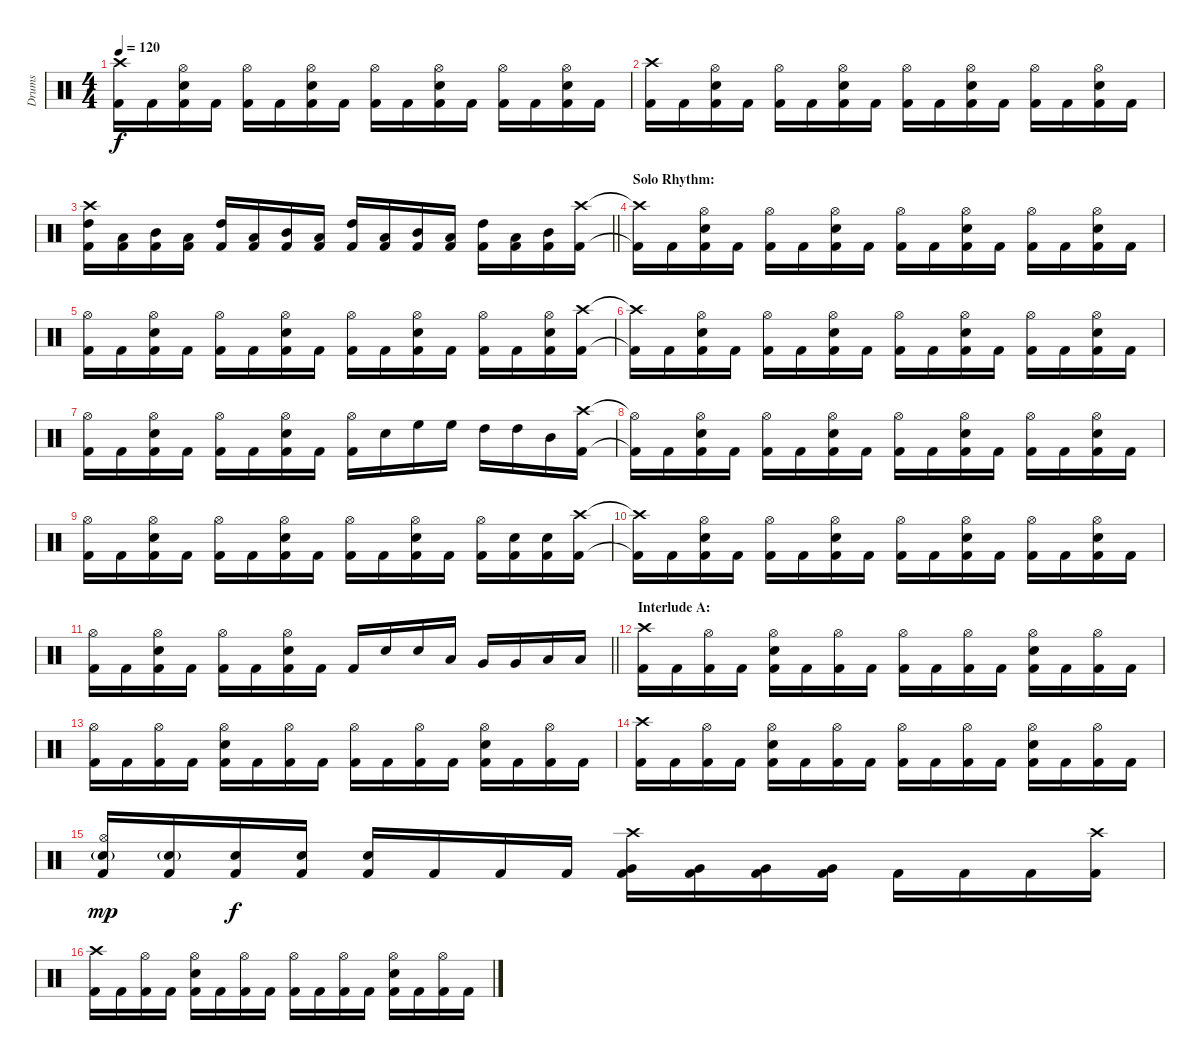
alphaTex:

\track ("Drums" "Drums") {instrument percussion}
\staff {score}
\articulation defaults
\ts (4 4)
\tempo 120
\clef neutral
\ks c
("Crash high (hit)" "Kick (hit) 2").16{dy f} "Kick (hit) 2".16 ("Hi-Hat (open)" "Electric Snare (hit)" "Kick (hit) 2").16 "Kick (hit) 2".16 ("Hi-Hat (open)" "Kick (hit) 2").16 "Kick (hit) 2".16 ("Hi-Hat (open)" "Electric Snare (hit)" "Kick (hit) 2").16 "Kick (hit) 2".16 ("Hi-Hat (open)" "Kick (hit) 2").16 "Kick (hit) 2".16 ("Hi-Hat (open)" "Electric Snare (hit)" "Kick (hit) 2").16 "Kick (hit) 2".16 ("Hi-Hat (open)" "Kick (hit) 2").16 "Kick (hit) 2".16 ("Hi-Hat (open)" "Electric Snare (hit)" "Kick (hit) 2").16 "Kick (hit) 2".16 |
("Crash high (hit)" "Kick (hit) 2").16 "Kick (hit) 2".16 ("Hi-Hat (open)" "Electric Snare (hit)" "Kick (hit) 2").16 "Kick (hit) 2".16 ("Hi-Hat (open)" "Kick (hit) 2").16 "Kick (hit) 2".16 ("Hi-Hat (open)" "Electric Snare (hit)" "Kick (hit) 2").16 "Kick (hit) 2".16 ("Hi-Hat (open)" "Kick (hit) 2").16 "Kick (hit) 2".16 ("Hi-Hat (open)" "Electric Snare (hit)" "Kick (hit) 2").16 "Kick (hit) 2".16 ("Hi-Hat (open)" "Kick (hit) 2").16 "Kick (hit) 2".16 ("Hi-Hat (open)" "Electric Snare (hit)" "Kick (hit) 2").16 "Kick (hit) 2".16 |
\barLineRight lightlight
("Crash high (hit)" "High Tom (hit)" "Kick (hit) 2").16 ("Low Tom (hit)" "Kick (hit) 2").16 ("Mid Tom (hit)" "Kick (hit) 2").16 ("Low Tom (hit)" "Kick (hit) 2").16 ("High Tom (hit)" "Kick (hit) 2").16 ("Low Tom (hit)" "Kick (hit) 2").16 ("Mid Tom (hit)" "Kick (hit) 2").16 ("Low Tom (hit)" "Kick (hit) 2").16 ("High Tom (hit)" "Kick (hit) 2").16 ("Low Tom (hit)" "Kick (hit) 2").16 ("Mid Tom (hit)" "Kick (hit) 2").16 ("Low Tom (hit)" "Kick (hit) 2").16 ("High Tom (hit)" "Kick (hit) 2").16 ("Low Tom (hit)" "Kick (hit) 2").16 ("Mid Tom (hit)" "Kick (hit) 2").16 ("Crash high (hit)" "Kick (hit) 2").16 |
\section ("" "Solo Rhythm:")
("Crash high (hit)"{t} "Kick (hit) 2"{t}).16 "Kick (hit) 2".16 ("Hi-Hat (open)" "Electric Snare (hit)" "Kick (hit) 2").16 "Kick (hit) 2".16 ("Hi-Hat (open)" "Kick (hit) 2").16 "Kick (hit) 2".16 ("Hi-Hat (open)" "Electric Snare (hit)" "Kick (hit) 2").16 "Kick (hit) 2".16 ("Hi-Hat (open)" "Kick (hit) 2").16 "Kick (hit) 2".16 ("Hi-Hat (open)" "Electric Snare (hit)" "Kick (hit) 2").16 "Kick (hit) 2".16 ("Hi-Hat (open)" "Kick (hit) 2").16 "Kick (hit) 2".16 ("Hi-Hat (open)" "Electric Snare (hit)" "Kick (hit) 2").16 "Kick (hit) 2".16 |
("Hi-Hat (open)" "Kick (hit) 2").16 "Kick (hit) 2".16 ("Hi-Hat (open)" "Electric Snare (hit)" "Kick (hit) 2").16 "Kick (hit) 2".16 ("Hi-Hat (open)" "Kick (hit) 2").16 "Kick (hit) 2".16 ("Hi-Hat (open)" "Electric Snare (hit)" "Kick (hit) 2").16 "Kick (hit) 2".16 ("Hi-Hat (open)" "Kick (hit) 2").16 "Kick (hit) 2".16 ("Hi-Hat (open)" "Electric Snare (hit)" "Kick (hit) 2").16 "Kick (hit) 2".16 ("Hi-Hat (open)" "Kick (hit) 2").16 "Kick (hit) 2".16 ("Hi-Hat (open)" "Electric Snare (hit)" "Kick (hit) 2").16 ("Crash high (hit)" "Kick (hit) 2").16 |
("Crash high (hit)"{t} "Kick (hit) 2"{t}).16 "Kick (hit) 2".16 ("Hi-Hat (open)" "Electric Snare (hit)" "Kick (hit) 2").16 "Kick (hit) 2".16 ("Hi-Hat (open)" "Kick (hit) 2").16 "Kick (hit) 2".16 ("Hi-Hat (open)" "Electric Snare (hit)" "Kick (hit) 2").16 "Kick (hit) 2".16 ("Hi-Hat (open)" "Kick (hit) 2").16 "Kick (hit) 2".16 ("Hi-Hat (open)" "Electric Snare (hit)" "Kick (hit) 2").16 "Kick (hit) 2".16 ("Hi-Hat (open)" "Kick (hit) 2").16 "Kick (hit) 2".16 ("Hi-Hat (open)" "Electric Snare (hit)" "Kick (hit) 2").16 "Kick (hit) 2".16 |
("Hi-Hat (open)" "Kick (hit) 2").16 "Kick (hit) 2".16 ("Hi-Hat (open)" "Electric Snare (hit)" "Kick (hit) 2").16 "Kick (hit) 2".16 ("Hi-Hat (open)" "Kick (hit) 2").16 "Kick (hit) 2".16 ("Hi-Hat (open)" "Electric Snare (hit)" "Kick (hit) 2").16 "Kick (hit) 2".16 ("Hi-Hat (open)" "Kick (hit) 2").16 "Electric Snare (hit)".16 "High Floor Tom (hit)".16 "High Floor Tom (hit)".16 "High Tom (hit)".16 "High Tom (hit)".16 "Mid Tom (hit)".16 ("Crash high (hit)" "Kick (hit) 2").16 |
("Hi-Hat (open)"{t} "Kick (hit) 2"{t}).16 "Kick (hit) 2".16 ("Hi-Hat (open)" "Electric Snare (hit)" "Kick (hit) 2").16 "Kick (hit) 2".16 ("Hi-Hat (open)" "Kick (hit) 2").16 "Kick (hit) 2".16 ("Hi-Hat (open)" "Electric Snare (hit)" "Kick (hit) 2").16 "Kick (hit) 2".16 ("Hi-Hat (open)" "Kick (hit) 2").16 "Kick (hit) 2".16 ("Hi-Hat (open)" "Electric Snare (hit)" "Kick (hit) 2").16 "Kick (hit) 2".16 ("Hi-Hat (open)" "Kick (hit) 2").16 "Kick (hit) 2".16 ("Hi-Hat (open)" "Electric Snare (hit)" "Kick (hit) 2").16 "Kick (hit) 2".16 |
("Hi-Hat (open)" "Kick (hit) 2").16 "Kick (hit) 2".16 ("Hi-Hat (open)" "Electric Snare (hit)" "Kick (hit) 2").16 "Kick (hit) 2".16 ("Hi-Hat (open)" "Kick (hit) 2").16 "Kick (hit) 2".16 ("Hi-Hat (open)" "Electric Snare (hit)" "Kick (hit) 2").16 "Kick (hit) 2".16 ("Hi-Hat (open)" "Kick (hit) 2").16 "Kick (hit) 2".16 ("Hi-Hat (open)" "Electric Snare (hit)" "Kick (hit) 2").16 "Kick (hit) 2".16 ("Hi-Hat (open)" "Kick (hit) 2").16 ("Electric Snare (hit)" "Kick (hit) 2").16 ("Electric Snare (hit)" "Kick (hit) 2").16 ("Crash high (hit)" "Kick (hit) 2").16 |
("Crash high (hit)"{t} "Kick (hit) 2"{t}).16 "Kick (hit) 2".16 ("Hi-Hat (open)" "Electric Snare (hit)" "Kick (hit) 2").16 "Kick (hit) 2".16 ("Hi-Hat (open)" "Kick (hit) 2").16 "Kick (hit) 2".16 ("Hi-Hat (open)" "Electric Snare (hit)" "Kick (hit) 2").16 "Kick (hit) 2".16 ("Hi-Hat (open)" "Kick (hit) 2").16 "Kick (hit) 2".16 ("Hi-Hat (open)" "Electric Snare (hit)" "Kick (hit) 2").16 "Kick (hit) 2".16 ("Hi-Hat (open)" "Kick (hit) 2").16 "Kick (hit) 2".16 ("Hi-Hat (open)" "Electric Snare (hit)" "Kick (hit) 2").16 "Kick (hit) 2".16 |
\barLineRight lightlight
("Hi-Hat (open)" "Kick (hit) 2").16 "Kick (hit) 2".16 ("Hi-Hat (open)" "Electric Snare (hit)" "Kick (hit) 2").16 "Kick (hit) 2".16 ("Hi-Hat (open)" "Kick (hit) 2").16 "Kick (hit) 2".16 ("Hi-Hat (open)" "Electric Snare (hit)" "Kick (hit) 2").16 "Kick (hit) 2".16 "Kick (hit) 2".16 "Electric Snare (hit)".16 "Electric Snare (hit)".16 "Low Tom (hit)".16 "Very Low Tom (hit)".16 "Very Low Tom (hit)".16 "Low Floor Tom (hit)".16 "Low Floor Tom (hit)".16 |
\section ("" "Interlude A:")
("Crash high (hit)" "Kick (hit) 2").16 "Kick (hit) 2".16 ("Hi-Hat (open)" "Kick (hit) 2").16 "Kick (hit) 2".16 ("Hi-Hat (open)" "Electric Snare (hit)" "Kick (hit) 2").16 "Kick (hit) 2".16 ("Hi-Hat (open)" "Kick (hit) 2").16 "Kick (hit) 2".16 ("Hi-Hat (open)" "Kick (hit) 2").16 "Kick (hit) 2".16 ("Hi-Hat (open)" "Kick (hit) 2").16 "Kick (hit) 2".16 ("Hi-Hat (open)" "Electric Snare (hit)" "Kick (hit) 2").16 "Kick (hit) 2".16 ("Hi-Hat (open)" "Kick (hit) 2").16 "Kick (hit) 2".16 |
("Hi-Hat (open)" "Kick (hit) 2").16 "Kick (hit) 2".16 ("Hi-Hat (open)" "Kick (hit) 2").16 "Kick (hit) 2".16 ("Hi-Hat (open)" "Electric Snare (hit)" "Kick (hit) 2").16 "Kick (hit) 2".16 ("Hi-Hat (open)" "Kick (hit) 2").16 "Kick (hit) 2".16 ("Hi-Hat (open)" "Kick (hit) 2").16 "Kick (hit) 2".16 ("Hi-Hat (open)" "Kick (hit) 2").16 "Kick (hit) 2".16 ("Hi-Hat (open)" "Electric Snare (hit)" "Kick (hit) 2").16 "Kick (hit) 2".16 ("Hi-Hat (open)" "Kick (hit) 2").16 "Kick (hit) 2".16 |
("Crash high (hit)" "Kick (hit) 2").16 "Kick (hit) 2".16 ("Hi-Hat (open)" "Kick (hit) 2").16 "Kick (hit) 2".16 ("Hi-Hat (open)" "Electric Snare (hit)" "Kick (hit) 2").16 "Kick (hit) 2".16 ("Hi-Hat (open)" "Kick (hit) 2").16 "Kick (hit) 2".16 ("Hi-Hat (open)" "Kick (hit) 2").16 "Kick (hit) 2".16 ("Hi-Hat (open)" "Kick (hit) 2").16 "Kick (hit) 2".16 ("Hi-Hat (open)" "Electric Snare (hit)" "Kick (hit) 2").16 "Kick (hit) 2".16 ("Hi-Hat (open)" "Kick (hit) 2").16 "Kick (hit) 2".16 |
("Hi-Hat (open)" "Electric Snare (hit)"{g} "Kick (hit) 2").16{dy mp} ("Electric Snare (hit)"{g} "Kick (hit) 2").16 ("Electric Snare (hit)" "Kick (hit) 2").16{dy f} ("Electric Snare (hit)" "Kick (hit) 2").16 ("Electric Snare (hit)" "Kick (hit) 2").16 "Kick (hit) 2".16 "Kick (hit) 2".16 "Kick (hit) 2".16 ("Crash high (hit)" "Very Low Tom (hit)" "Kick (hit) 2").16 ("Very Low Tom (hit)" "Kick (hit) 2").16 ("Very Low Tom (hit)" "Kick (hit) 2").16 ("Very Low Tom (hit)" "Kick (hit) 2").16 "Kick (hit) 2".16 "Kick (hit) 2".16 "Kick (hit) 2".16 ("Crash high (hit)" "Kick (hit) 2").16 |
("Crash high (hit)" "Kick (hit) 2").16 "Kick (hit) 2".16 ("Hi-Hat (open)" "Kick (hit) 2").16 "Kick (hit) 2".16 ("Hi-Hat (open)" "Electric Snare (hit)" "Kick (hit) 2").16 "Kick (hit) 2".16 ("Hi-Hat (open)" "Kick (hit) 2").16 "Kick (hit) 2".16 ("Hi-Hat (open)" "Kick (hit) 2").16 "Kick (hit) 2".16 ("Hi-Hat (open)" "Kick (hit) 2").16 "Kick (hit) 2".16 ("Hi-Hat (open)" "Electric Snare (hit)" "Kick (hit) 2").16 "Kick (hit) 2".16 ("Hi-Hat (open)" "Kick (hit) 2").16 "Kick (hit) 2".16
